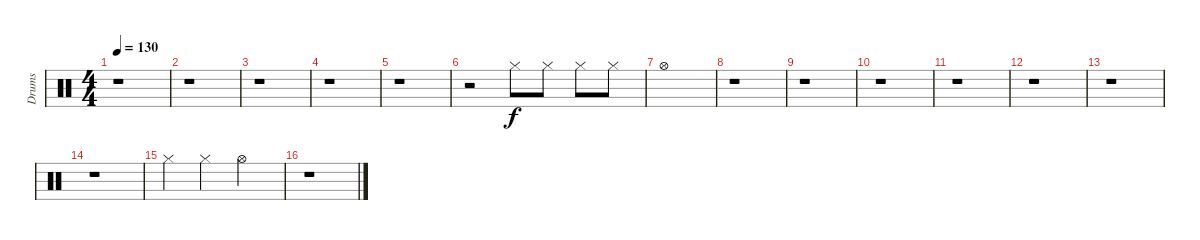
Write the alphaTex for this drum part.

\track ("Drums" "Drums") {instrument percussion}
\staff {score}
\articulation defaults
\ts (4 4)
\tempo 130
\clef neutral
\ks c
r.1{dy f} |
r.1 |
r.1 |
r.1 |
r.1 |
r.2 "Hi-Hat (closed)".8 "Hi-Hat (closed)".8 "Hi-Hat (closed)".8 "Hi-Hat (closed)".8 |
"Hi-Hat (open)".1 |
r.1 |
r.1 |
r.1 |
r.1 |
r.1 |
r.1 |
r.1 |
"Hi-Hat (closed)".4 "Hi-Hat (closed)".4 "Hi-Hat (open)".2 |
r.1
